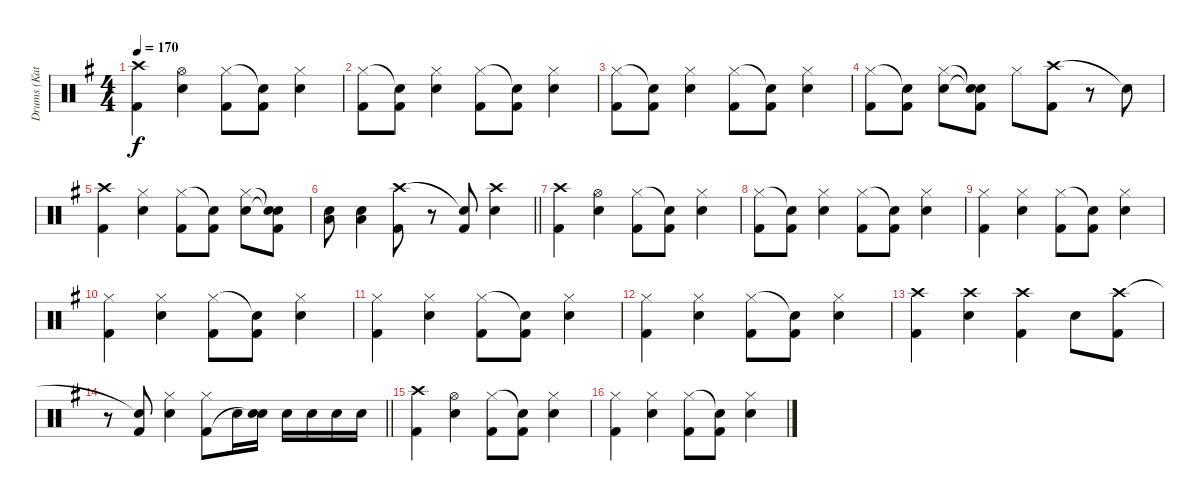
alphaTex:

\track ("Drums (Katsuji)" "Drums (Kat") {instrument percussion}
\staff {score}
\articulation defaults
\ts (4 4)
\tempo 170
\clef neutral
\ks g
("Crash high (hit)" "Kick (hit) 2").4{dy f} ("Hi-Hat (open)" "Snare (hit) 2").4 ("Hi-Hat (closed)" "Kick (hit) 2").8 ("Snare (hit)"{t} "Kick (hit) 2").8 ("Hi-Hat (closed)" "Snare (hit) 2").4 |
("Hi-Hat (closed)" "Kick (hit) 2").8 ("Snare (hit)"{t} "Kick (hit) 2").8 ("Hi-Hat (closed)" "Snare (hit) 2").4 ("Hi-Hat (closed)" "Kick (hit) 2").8 ("Snare (hit)"{t} "Kick (hit) 2").8 ("Hi-Hat (closed)" "Snare (hit) 2").4 |
("Hi-Hat (closed)" "Kick (hit) 2").8 ("Snare (hit)"{t} "Kick (hit) 2").8 ("Hi-Hat (closed)" "Snare (hit) 2").4 ("Hi-Hat (closed)" "Kick (hit) 2").8 ("Snare (hit)"{t} "Kick (hit) 2").8 ("Hi-Hat (closed)" "Snare (hit) 2").4 |
("Hi-Hat (closed)" "Kick (hit) 2").8 ("Snare (hit)"{t} "Kick (hit) 2").8 ("Hi-Hat (closed)" "Snare (hit) 2").8 ("Snare (hit)"{t} "Snare (hit)"{t} "Kick (hit) 2").8 "Hi-Hat (closed)".8 ("Crash high (hit)" "Kick (hit) 2").8 r.8 "Snare (hit)"{t}.8 |
("Crash high (hit)" "Kick (hit) 2").4 ("Hi-Hat (closed)" "Snare (hit) 2").4 ("Hi-Hat (closed)" "Kick (hit) 2").8 ("Snare (hit)"{t} "Kick (hit) 2").8 ("Hi-Hat (closed)" "Snare (hit) 2").8 ("Snare (hit)"{t} "Snare (hit)"{t} "Kick (hit) 2").8 |
\barLineRight lightlight
("Snare (hit) 2" "Low Tom (hit)").8 ("Snare (hit) 2" "Low Tom (hit)").4 ("Crash high (hit)" "Kick (hit) 2").8 r.8 ("Snare (hit)"{t} "Kick (hit) 2").8 ("Crash high (hit)" "Snare (hit) 2").4 |
("Crash high (hit)" "Kick (hit) 2").4 ("Hi-Hat (open)" "Snare (hit) 2").4 ("Hi-Hat (closed)" "Kick (hit) 2").8 ("Snare (hit)"{t} "Kick (hit) 2").8 ("Hi-Hat (closed)" "Snare (hit) 2").4 |
("Hi-Hat (closed)" "Kick (hit) 2").8 ("Snare (hit)"{t} "Kick (hit) 2").8 ("Hi-Hat (closed)" "Snare (hit) 2").4 ("Hi-Hat (closed)" "Kick (hit) 2").8 ("Snare (hit)"{t} "Kick (hit) 2").8 ("Hi-Hat (closed)" "Snare (hit) 2").4 |
("Hi-Hat (closed)" "Kick (hit) 2").4 ("Hi-Hat (closed)" "Snare (hit) 2").4 ("Hi-Hat (closed)" "Kick (hit) 2").8 ("Snare (hit)"{t} "Kick (hit) 2").8 ("Hi-Hat (closed)" "Snare (hit) 2").4 |
("Hi-Hat (closed)" "Kick (hit) 2").4 ("Hi-Hat (closed)" "Snare (hit) 2").4 ("Hi-Hat (closed)" "Kick (hit) 2").8 ("Snare (hit)"{t} "Kick (hit) 2").8 ("Hi-Hat (closed)" "Snare (hit) 2").4 |
("Hi-Hat (closed)" "Kick (hit) 2").4 ("Hi-Hat (closed)" "Snare (hit) 2").4 ("Hi-Hat (closed)" "Kick (hit) 2").8 ("Snare (hit)"{t} "Kick (hit) 2").8 ("Hi-Hat (closed)" "Snare (hit) 2").4 |
("Hi-Hat (closed)" "Kick (hit) 2").4 ("Hi-Hat (closed)" "Snare (hit) 2").4 ("Hi-Hat (closed)" "Kick (hit) 2").8 ("Snare (hit)"{t} "Kick (hit) 2").8 ("Hi-Hat (closed)" "Snare (hit) 2").4 |
("Crash high (hit)" "Kick (hit) 2").4 ("Crash high (hit)" "Snare (hit) 2").4 ("Crash high (hit)" "Kick (hit) 2").4 "Snare (hit) 2".8 ("Crash high (hit)" "Kick (hit) 2").8 |
\barLineRight lightlight
r.8 ("Snare (hit)"{t} "Kick (hit) 2").8 ("Hi-Hat (closed)" "Snare (hit) 2").4 ("Hi-Hat (closed)" "Kick (hit) 2").8 "Snare (hit) 2".16 ("Snare (hit) 2" "Snare (hit)"{t}).16 "Snare (hit) 2".16 "Snare (hit) 2".16 "Snare (hit) 2".16 "Snare (hit) 2".16 |
("Crash high (hit)" "Kick (hit) 2").4 ("Hi-Hat (open)" "Snare (hit) 2").4 ("Hi-Hat (closed)" "Kick (hit) 2").8 ("Snare (hit)"{t} "Kick (hit) 2").8 ("Hi-Hat (closed)" "Snare (hit) 2").4 |
("Hi-Hat (closed)" "Kick (hit) 2").4 ("Hi-Hat (closed)" "Snare (hit) 2").4 ("Hi-Hat (closed)" "Kick (hit) 2").8 ("Snare (hit)"{t} "Kick (hit) 2").8 ("Hi-Hat (closed)" "Snare (hit) 2").4
